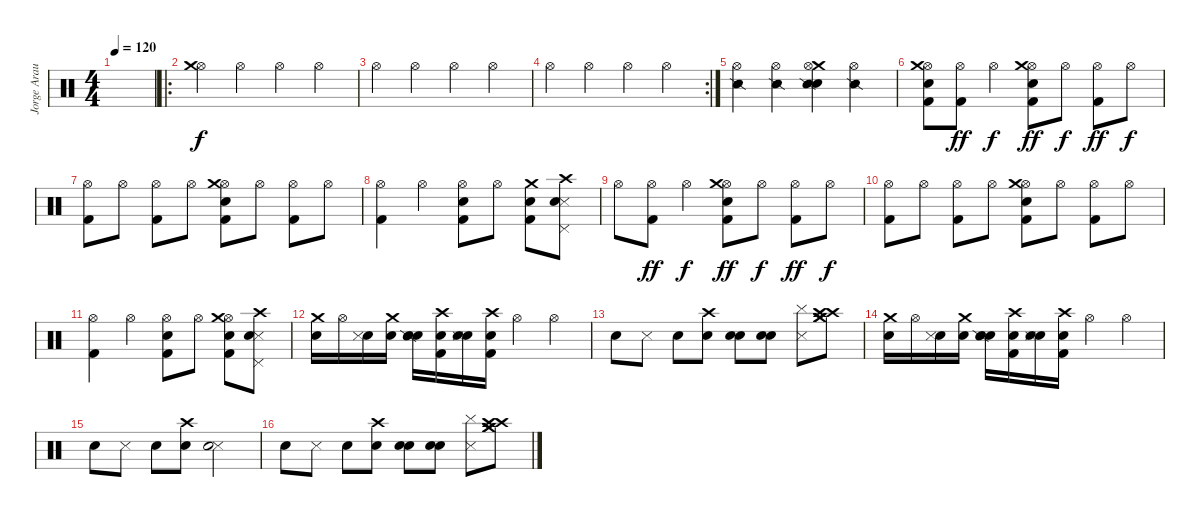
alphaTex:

\track ("Jorge Araujo" "Jorge Arau") {instrument percussion}
\staff {score}
\articulation defaults
\ts (4 4)
\tempo 120
\clef neutral
\ks c
|
\ro
("Hi-Hat (open)" "Crash medium (hit)").4 "Hi-Hat (open)".4 "Hi-Hat (open)".4 "Hi-Hat (open)".4 |
"Hi-Hat (open)".4 "Hi-Hat (open)".4 "Hi-Hat (open)".4 "Hi-Hat (open)".4 |
\rc 2 "Hi-Hat (open)".4 "Hi-Hat (open)".4 "Hi-Hat (open)".4 "Hi-Hat (open)".4
|
("Snare (side stick) 2" "Hi-Hat (open)").4 ("Snare (side stick) 2" "Hi-Hat (open)").4 ("Crash medium (hit)" "Snare (hit) 2" "Snare (side stick) 2" "Hi-Hat (open)").4 ("Snare (side stick) 2" "Hi-Hat (open)").4 |
("Kick (hit) 2" "Hi-Hat (open)" "Metronome (bell)" "Crash medium (hit)").8 ("Kick (hit) 2" "Hi-Hat (open)").8{dy ff} "Hi-Hat (open)".4{dy f} ("Kick (hit) 2" "Hi-Hat (open)" "Metronome (bell)" "Crash medium (hit)").8{dy ff} "Hi-Hat (open)".8{dy f} ("Kick (hit) 2" "Hi-Hat (open)").8{dy ff} "Hi-Hat (open)".8{dy f} |
("Kick (hit) 2" "Hi-Hat (open)").8 "Hi-Hat (open)".8 ("Kick (hit) 2" "Hi-Hat (open)").8 "Hi-Hat (open)".8 ("Kick (hit) 2" "Hi-Hat (open)" "Metronome (bell)" "Crash medium (hit)").8 "Hi-Hat (open)".8 ("Kick (hit) 2" "Hi-Hat (open)").8 "Hi-Hat (open)".8 |
("Kick (hit) 2" "Hi-Hat (open)").4 "Hi-Hat (open)".4 ("Kick (hit) 2" "Hi-Hat (open)" "Metronome (bell)").8 "Hi-Hat (open)".8 ("Kick (hit) 2" "Metronome (bell)" "Crash medium (hit)").8 ("Metronome (hit)" "Crash high (hit)" "Pedal Hi-Hat (hit)" "Metronome (bell)").8 |
"Hi-Hat (open)".8 ("Kick (hit) 2" "Hi-Hat (open)").8{dy ff} "Hi-Hat (open)".4{dy f} ("Kick (hit) 2" "Hi-Hat (open)" "Metronome (bell)" "Crash medium (hit)").8{dy ff} "Hi-Hat (open)".8{dy f} ("Kick (hit) 2" "Hi-Hat (open)").8{dy ff} "Hi-Hat (open)".8{dy f} |
("Kick (hit) 2" "Hi-Hat (open)").8 "Hi-Hat (open)".8 ("Kick (hit) 2" "Hi-Hat (open)").8 "Hi-Hat (open)".8 ("Kick (hit) 2" "Hi-Hat (open)" "Metronome (bell)" "Crash medium (hit)").8 "Hi-Hat (open)".8 ("Kick (hit) 2" "Hi-Hat (open)").8 "Hi-Hat (open)".8 |
("Kick (hit) 2" "Hi-Hat (open)").4 "Hi-Hat (open)".4 ("Kick (hit) 2" "Hi-Hat (open)" "Metronome (bell)").8 "Hi-Hat (open)".8 ("Kick (hit) 2" "Hi-Hat (open)" "Metronome (bell)" "Crash medium (hit)").8 ("Metronome (hit)" "Crash high (hit)" "Pedal Hi-Hat (hit)" "Metronome (bell)").8 |
("Snare (hit) 2" "Crash medium (hit)").16 "Hi-Hat (open)".16 ("Metronome (bell)" "Metronome (hit)").16 ("Metronome (bell)" "Crash medium (hit)").16 ("Snare (hit) 2" "Hand Clap (hit)" "Snare (side stick) 2").16 ("Crash high (hit)" "Metronome (bell)" "Kick (hit) 2").16 ("Metronome (bell)" "Metronome (hit)" "Snare (hit) 2").16 ("Crash high (hit)" "Metronome (bell)" "Kick (hit) 2").16 "Hi-Hat (open)".4 "Hi-Hat (open)".4 |
"Metronome (bell)".8 "Metronome (hit)".8 "Snare (hit) 2".8 ("Metronome (bell)" "Crash high (hit)").8 ("Metronome (bell)" "Snare (hit) 2").8 ("Snare (hit) 2" "Electric Snare (hit)").8 ("Cymbal (hit)" "Metronome (hit)").8 ("Crash medium (hit)" "Crash high (hit)" "Crash high (hit)" "Crash medium (hit)").8 |
("Snare (hit) 2" "Crash medium (hit)").16 "Hi-Hat (open)".16 ("Metronome (bell)" "Metronome (hit)").16 ("Metronome (bell)" "Crash medium (hit)").16 ("Snare (hit) 2" "Hand Clap (hit)" "Snare (side stick) 2").16 ("Crash high (hit)" "Metronome (bell)" "Kick (hit) 2").16 ("Metronome (bell)" "Metronome (hit)" "Snare (hit) 2").16 ("Crash high (hit)" "Metronome (bell)" "Kick (hit) 2").16 "Hi-Hat (open)".4 "Hi-Hat (open)".4 |
"Metronome (bell)".8 "Metronome (hit)".8 "Snare (hit) 2".8 ("Metronome (bell)" "Crash high (hit)").8 ("Metronome (hit)" "Snare (hit) 2").2 |
"Metronome (bell)".8 "Metronome (hit)".8 "Snare (hit) 2".8 ("Metronome (bell)" "Crash high (hit)").8 ("Metronome (bell)" "Snare (hit) 2").8 ("Snare (hit) 2" "Electric Snare (hit)").8 ("Cymbal (hit)" "Metronome (hit)").8 ("Crash medium (hit)" "Crash high (hit)" "Crash high (hit)" "Crash medium (hit)").8
